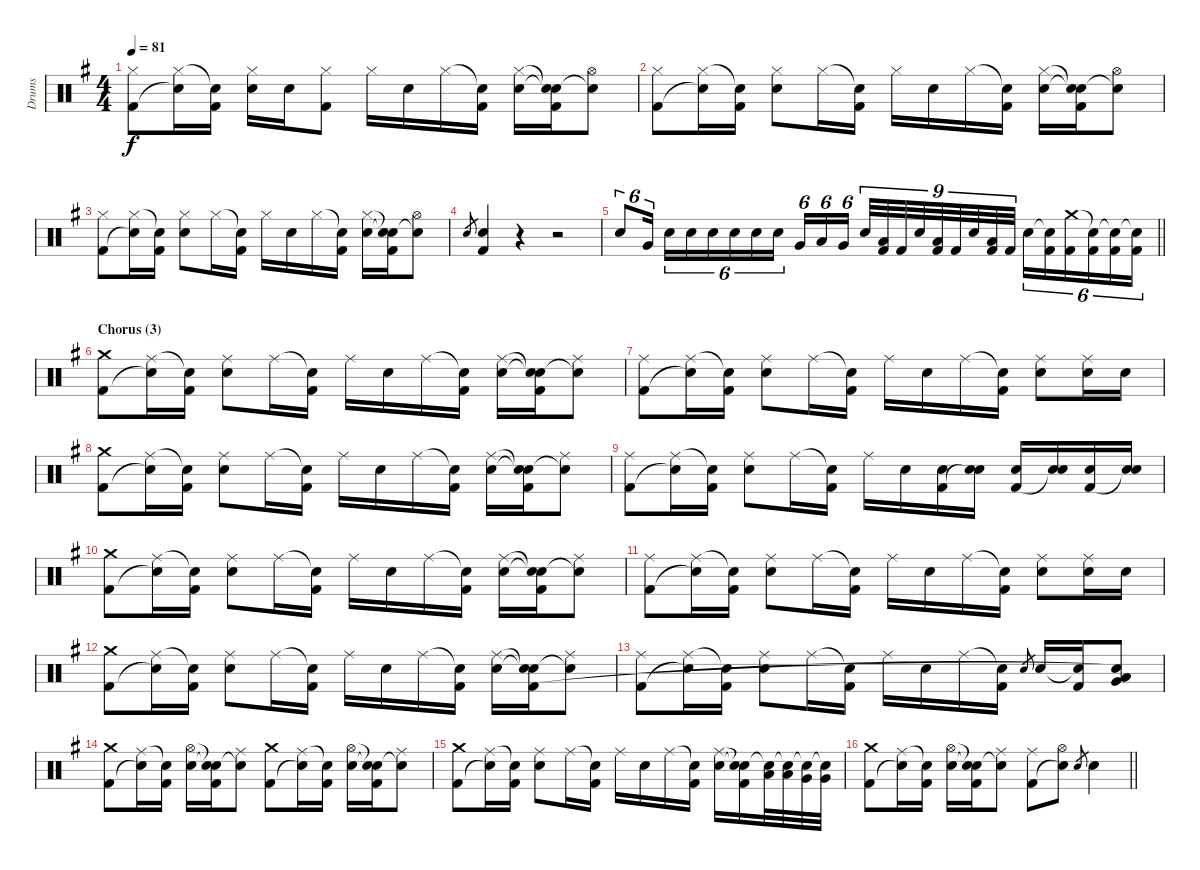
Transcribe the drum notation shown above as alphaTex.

\track ("Drums" "Drums") {instrument percussion}
\staff {score}
\articulation defaults
\ts (4 4)
\tempo 81
\clef neutral
\ks g
("Hi-Hat (closed)" "Kick (hit) 2").8{dy f} ("Hi-Hat (closed)" "Snare (hit)"{t}).16 ("Snare (hit)"{t} "Kick (hit) 2").16 ("Hi-Hat (closed)" "Electric Snare (hit)").16 "Electric Snare (hit)".16 ("Hi-Hat (closed)" "Kick (hit) 2").8 "Hi-Hat (closed)".16 "Electric Snare (hit)".16 "Hi-Hat (closed)".16 ("Snare (hit)"{t} "Kick (hit) 2").16 ("Hi-Hat (closed)" "Electric Snare (hit)").16 ("Snare (hit)"{t} "Snare (hit)"{t} "Kick (hit) 2").16 ("Hi-Hat (open)" "Snare (hit)"{t}).8 |
("Hi-Hat (closed)" "Kick (hit) 2").8 ("Hi-Hat (closed)" "Snare (hit)"{t}).16 ("Snare (hit)"{t} "Kick (hit) 2").16 ("Hi-Hat (closed)" "Electric Snare (hit)").8 "Hi-Hat (closed)".16 ("Snare (hit)"{t} "Kick (hit) 2").16 "Hi-Hat (closed)".16 "Electric Snare (hit)".16 "Hi-Hat (closed)".16 ("Snare (hit)"{t} "Kick (hit) 2").16 ("Hi-Hat (closed)" "Electric Snare (hit)").16 ("Snare (hit)"{t} "Snare (hit)"{t} "Kick (hit) 2").16 ("Hi-Hat (open)" "Snare (hit)"{t}).8 |
("Hi-Hat (closed)" "Kick (hit) 2").8 ("Hi-Hat (closed)" "Snare (hit)"{t}).16 ("Snare (hit)"{t} "Kick (hit) 2").16 ("Hi-Hat (closed)" "Electric Snare (hit)").8 "Hi-Hat (closed)".16 ("Snare (hit)"{t} "Kick (hit) 2").16 "Hi-Hat (closed)".16 "Electric Snare (hit)".16 "Hi-Hat (closed)".16 ("Snare (hit)"{t} "Kick (hit) 2").16 ("Hi-Hat (closed)" "Electric Snare (hit)").16 ("Snare (hit)"{t} "Snare (hit)"{t} "Kick (hit) 2").16 ("Hi-Hat (open)" "Snare (hit)"{t}).8 |
"Electric Snare (hit)".8{gr} ("Electric Snare (hit)" "Kick (hit) 2").4 r.4 r.2 |
\barLineRight lightlight "Electric Snare (hit)".8{tu (6 4)} "Very Low Tom (hit)".16{tu (6 4)} "Electric Snare (hit)".16{tu (6 4)} "Electric Snare (hit)".16{tu (6 4)} "Electric Snare (hit)".16{tu (6 4)} "Electric Snare (hit)".16{tu (6 4)} "Electric Snare (hit)".16{tu (6 4)} "Electric Snare (hit)".16{tu (6 4)} "Very Low Tom (hit)".16{tu (6 4)} "Low Floor Tom (hit)".16{tu (6 4)} "Very Low Tom (hit)".16{tu (6 4)} "Electric Snare (hit)".32{tu (9 8)}
("Low Floor Tom (hit)" "Kick (hit) 2").32{tu (9 8)} "Kick (hit) 2".32{tu (9 8)} "Electric Snare (hit)".32{tu (9 8)} ("Low Floor Tom (hit)" "Kick (hit) 2").32{tu (9 8)} "Kick (hit) 2".32{tu (9 8)} "Electric Snare (hit)".32{tu (9 8)} ("Low Floor Tom (hit)" "Kick (hit) 2").32{tu (9 8)} "Kick (hit) 2".32{tu (9 8)} "Electric Snare (hit)".16{tu (6 4)} ("Snare (hit)"{t} "Kick (hit) 2").16{tu (6 4)} ("Crash medium (hit)" "Kick (hit) 2").16{tu (6 4)} ("Snare (hit)"{t} "Kick (hit) 2").16{tu (6 4)} ("Snare (hit)"{t} "Kick (hit) 2").16{tu (6 4)} ("Snare (hit)"{t} "Kick (hit) 2").16{tu (6 4)} |
\section ("" "Chorus (3)")
("Crash medium (hit)" "Kick (hit) 2").8 ("Ride (middle)" "Snare (hit)"{t}).16 ("Snare (hit)"{t} "Kick (hit) 2").16 ("Ride (middle)" "Electric Snare (hit)").8 "Ride (middle)".16 ("Snare (hit)"{t} "Kick (hit) 2").16 "Ride (middle)".16 "Electric Snare (hit)".16 "Ride (middle)".16 ("Snare (hit)"{t} "Kick (hit) 2").16 ("Ride (middle)" "Electric Snare (hit)").16 ("Snare (hit)"{t} "Snare (hit)"{t} "Kick (hit) 2").16 ("Ride (middle)" "Snare (hit)"{t}).8 |
("Ride (middle)" "Kick (hit) 2").8 ("Ride (middle)" "Snare (hit)"{t}).16 ("Snare (hit)"{t} "Kick (hit) 2").16 ("Ride (middle)" "Electric Snare (hit)").8 "Ride (middle)".16 ("Snare (hit)"{t} "Kick (hit) 2").16 "Ride (middle)".16 "Electric Snare (hit)".16 "Ride (middle)".16 ("Snare (hit)"{t} "Kick (hit) 2").16 ("Ride (middle)" "Electric Snare (hit)").8 ("Ride (middle)" "Electric Snare (hit)").16 "Electric Snare (hit)".16 |
("Crash medium (hit)" "Kick (hit) 2").8 ("Ride (middle)" "Snare (hit)"{t}).16 ("Snare (hit)"{t} "Kick (hit) 2").16 ("Ride (middle)" "Electric Snare (hit)").8 "Ride (middle)".16 ("Snare (hit)"{t} "Kick (hit) 2").16 "Ride (middle)".16 "Electric Snare (hit)".16 "Ride (middle)".16 ("Snare (hit)"{t} "Kick (hit) 2").16 ("Ride (middle)" "Electric Snare (hit)").16 ("Snare (hit)"{t} "Snare (hit)"{t} "Kick (hit) 2").16 ("Ride (middle)" "Snare (hit)"{t}).8 |
("Ride (middle)" "Kick (hit) 2").8 ("Ride (middle)" "Snare (hit)"{t}).16 ("Snare (hit)"{t} "Kick (hit) 2").16 ("Ride (middle)" "Electric Snare (hit)").8 "Ride (middle)".16 ("Snare (hit)"{t} "Kick (hit) 2").16 "Ride (middle)".16 "Electric Snare (hit)".16 ("Electric Snare (hit)" "Kick (hit) 2").16 ("Electric Snare (hit)" "Snare (hit)"{t}).16 ("Electric Snare (hit)" "Kick (hit) 2").16 ("Electric Snare (hit)" "Snare (hit)"{t}).16 ("Electric Snare (hit)" "Kick (hit) 2").16 ("Electric Snare (hit)" "Snare (hit)"{t}).16 |
("Crash medium (hit)" "Kick (hit) 2").8 ("Ride (middle)" "Snare (hit)"{t}).16 ("Snare (hit)"{t} "Kick (hit) 2").16 ("Ride (middle)" "Electric Snare (hit)").8 "Ride (middle)".16 ("Snare (hit)"{t} "Kick (hit) 2").16 "Ride (middle)".16 "Electric Snare (hit)".16 "Ride (middle)".16 ("Snare (hit)"{t} "Kick (hit) 2").16 ("Ride (middle)" "Electric Snare (hit)").16 ("Snare (hit)"{t} "Snare (hit)"{t} "Kick (hit) 2").16 ("Ride (middle)" "Snare (hit)"{t}).8 |
("Ride (middle)" "Kick (hit) 2").8 ("Ride (middle)" "Snare (hit)"{t}).16 ("Snare (hit)"{t} "Kick (hit) 2").16 ("Ride (middle)" "Electric Snare (hit)").8 "Ride (middle)".16 ("Snare (hit)"{t} "Kick (hit) 2").16 "Ride (middle)".16 "Electric Snare (hit)".16 "Ride (middle)".16 ("Snare (hit)"{t} "Kick (hit) 2").16 ("Ride (middle)" "Electric Snare (hit)").8 ("Ride (middle)" "Electric Snare (hit)").16 "Electric Snare (hit)".16 |
("Crash medium (hit)" "Kick (hit) 2").8 ("Ride (middle)" "Snare (hit)"{t}).16 ("Snare (hit)"{t} "Kick (hit) 2").16 ("Ride (middle)" "Electric Snare (hit)").8 "Ride (middle)".16 ("Snare (hit)"{t} "Kick (hit) 2").16 "Ride (middle)".16 "Electric Snare (hit)".16 "Ride (middle)".16 ("Snare (hit)"{t} "Kick (hit) 2").16 ("Ride (middle)" "Electric Snare (hit)").16 ("Snare (hit)"{t} "Snare (hit)"{t} "Kick (hit) 2").16 ("Ride (middle)" "Snare (hit)"{t}).8 |
("Ride (middle)" "Kick (hit) 2").8 ("Ride (middle)" "Snare (hit)"{t}).16 ("Snare (hit)"{t} "Kick (hit) 2").16 ("Ride (middle)" "Electric Snare (hit)").8 "Ride (middle)".16 ("Snare (hit)"{t} "Kick (hit) 2").16 "Ride (middle)".16 "Electric Snare (hit)".16 "Ride (middle)".16 ("Snare (hit)"{t} "Kick (hit) 2").16 "Electric Snare (hit)".8{gr} "Electric Snare (hit)".16 ("Snare (hit)"{t} "Kick (hit) 2").16 ("Low Tom (hit)" "Very Low Tom (hit)" "Snare (hit)"{t}).8 |
("Crash medium (hit)" "Kick (hit) 2").8 ("Ride (middle)" "Snare (hit)"{t}).16 ("Snare (hit)"{t} "Kick (hit) 2").16 ("Hi-Hat (open)" "Electric Snare (hit)").16 ("Snare (hit)"{t} "Snare (hit)"{t} "Kick (hit) 2").16 ("Ride (middle)" "Snare (hit)"{t}).8 ("Crash medium (hit)" "Kick (hit) 2").8 ("Ride (middle)" "Snare (hit)"{t}).16 ("Snare (hit)"{t} "Kick (hit) 2").16 ("Hi-Hat (open)" "Electric Snare (hit)").16 ("Snare (hit)"{t} "Snare (hit)"{t} "Kick (hit) 2").16 ("Ride (middle)" "Snare (hit)"{t}).8 |
("Crash medium (hit)" "Kick (hit) 2").8 ("Ride (middle)" "Snare (hit)"{t}).16 ("Snare (hit)"{t} "Kick (hit) 2").16 ("Ride (middle)" "Electric Snare (hit)").8 "Ride (middle)".16 ("Snare (hit)"{t} "Kick (hit) 2").16 "Ride (middle)".16 "Electric Snare (hit)".16 "Ride (middle)".16 ("Snare (hit)"{t} "Kick (hit) 2").16 ("Ride (middle)" "Electric Snare (hit)").16 ("Snare (hit)"{t} "Snare (hit)"{t} "Kick (hit) 2").16 ("Low Tom (hit)" "Snare (hit)"{t}).32 ("Low Tom (hit)" "Snare (hit)"{t}).32 ("Very Low Tom (hit)" "Snare (hit)"{t}).32 ("Very Low Tom (hit)" "Snare (hit)"{t}).32 |
\barLineRight lightlight
("Crash medium (hit)" "Kick (hit) 2").8 ("Ride (middle)" "Snare (hit)"{t}).16 ("Snare (hit)"{t} "Kick (hit) 2").16 ("Hi-Hat (open)" "Electric Snare (hit)").16 ("Snare (hit)"{t} "Snare (hit)"{t} "Kick (hit) 2").16 ("Ride (middle)" "Snare (hit)"{t}).8 ("Ride (middle)" "Kick (hit) 2").8 ("Hi-Hat (open)" "Snare (hit)"{t}).8 "Electric Snare (hit)".8{gr} "Electric Snare (hit)".4
